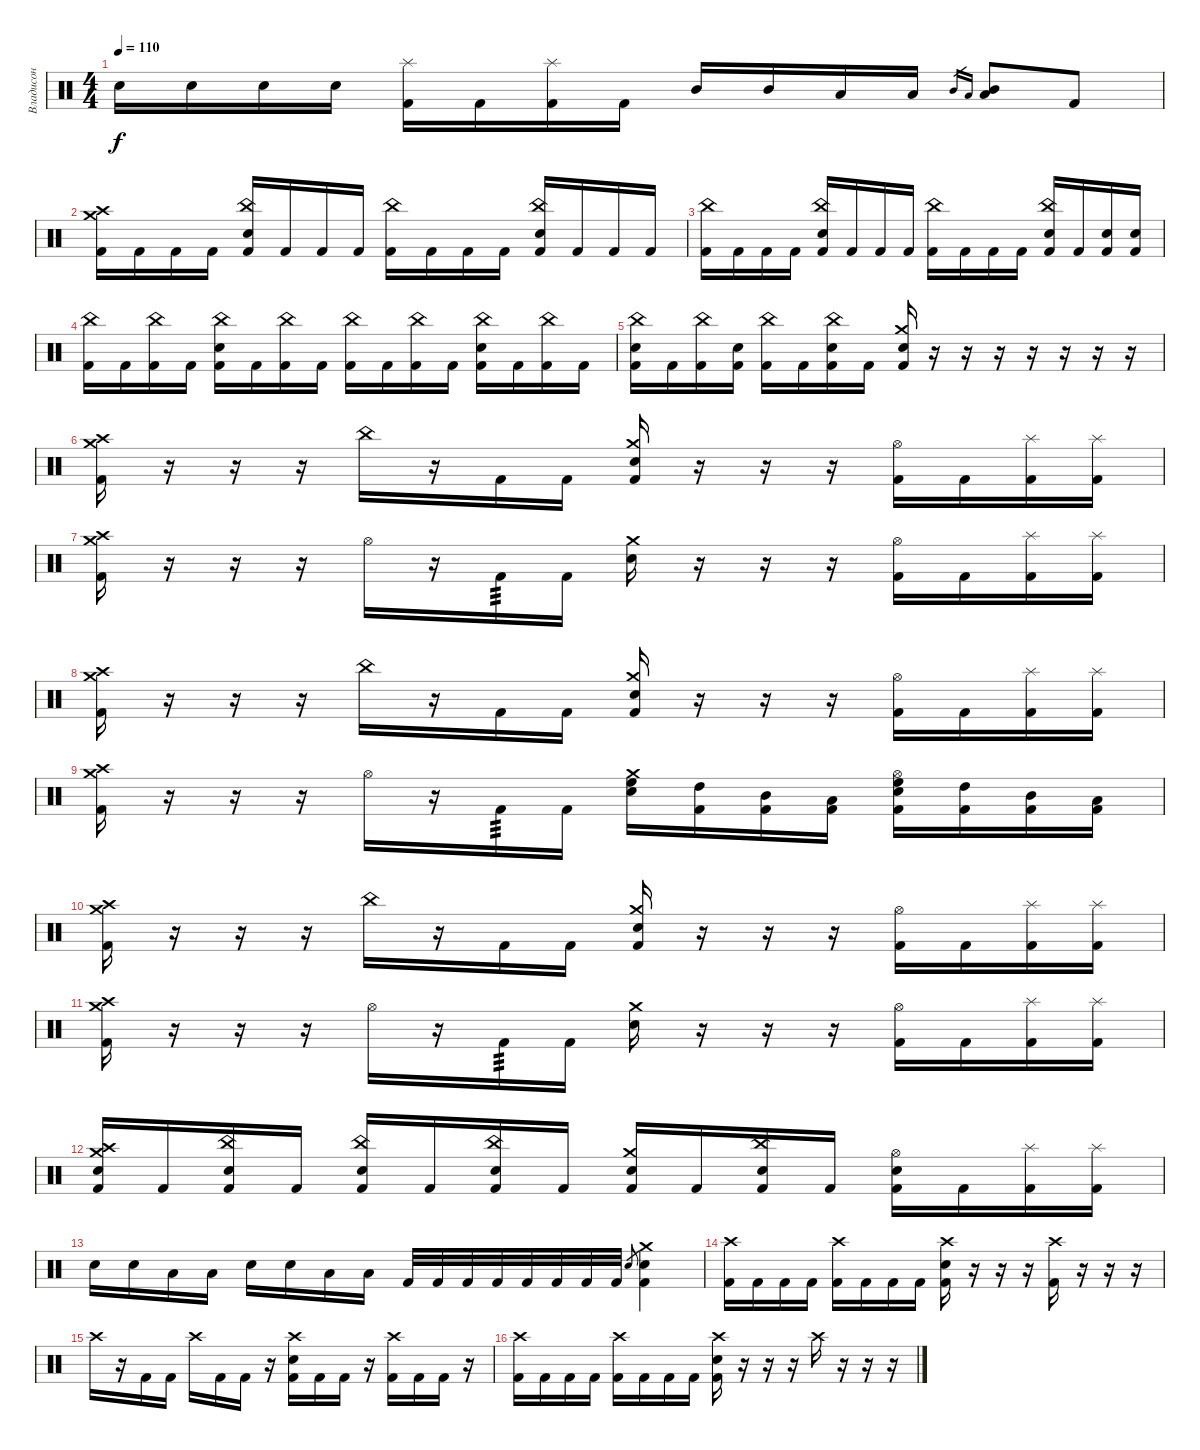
\track ("Владисон" "Владисон") {instrument percussion}
\staff
\articulation defaults
\ts (4 4)
\tempo 110
\clef neutral
\ks c "Electric Snare (hit)".16{dy f} "Electric Snare (hit)".16 "Electric Snare (hit)".16 "Electric Snare (hit)".16
("Splash (hit)" "Kick (hit) 2").16 "Kick (hit) 2".16 ("Splash (hit)" "Kick (hit) 2").16 "Kick (hit) 2".16 "Mid Tom (hit)".16 "Mid Tom (hit)".16 "Low Tom (hit)".16 "Low Tom (hit)".16 "Mid Tom (hit)".16{gr} "Low Tom (hit)".16{gr} ("Mid Tom (hit)" "Low Tom (hit)").8 "Kick (hit) 2".8 |
("Crash medium (hit)" "Crash high (hit)" "Kick (hit) 2").16 "Kick (hit) 2".16 "Kick (hit) 2".16 "Kick (hit) 2".16 ("China (hit)" "Snare (hit) 2" "Kick (hit) 2").16 "Kick (hit) 2".16 "Kick (hit) 2".16 "Kick (hit) 2".16 ("China (hit)" "Kick (hit) 2").16 "Kick (hit) 2".16 "Kick (hit) 2".16 "Kick (hit) 2".16 ("China (hit)" "Snare (hit) 2" "Kick (hit) 2").16 "Kick (hit) 2".16 "Kick (hit) 2".16 "Kick (hit) 2".16 |
("China (hit)" "Kick (hit) 2").16 "Kick (hit) 2".16 "Kick (hit) 2".16 "Kick (hit) 2".16 ("China (hit)" "Snare (hit) 2" "Kick (hit) 2").16 "Kick (hit) 2".16 "Kick (hit) 2".16 "Kick (hit) 2".16 ("China (hit)" "Kick (hit) 2").16 "Kick (hit) 2".16 "Kick (hit) 2".16 "Kick (hit) 2".16 ("China (hit)" "Snare (hit) 2" "Kick (hit) 2").16 "Kick (hit) 2".16 ("Snare (hit) 2" "Kick (hit) 2").16 ("Snare (hit) 2" "Kick (hit) 2").16 |
("China (hit)" "Kick (hit) 2").16 "Kick (hit) 2".16 ("China (hit)" "Kick (hit) 2").16 "Kick (hit) 2".16 ("China (hit)" "Snare (hit) 2" "Kick (hit) 2").16 "Kick (hit) 2".16 ("China (hit)" "Kick (hit) 2").16 "Kick (hit) 2".16 ("China (hit)" "Kick (hit) 2").16 "Kick (hit) 2".16 ("China (hit)" "Kick (hit) 2").16 "Kick (hit) 2".16 ("China (hit)" "Snare (hit) 2" "Kick (hit) 2").16 "Kick (hit) 2".16 ("China (hit)" "Kick (hit) 2").16 "Kick (hit) 2".16 |
("China (hit)" "Snare (hit) 2" "Kick (hit) 2").16 "Kick (hit) 2".16 ("China (hit)" "Kick (hit) 2").16 ("Snare (hit) 2" "Kick (hit) 2").16 ("China (hit)" "Kick (hit) 2").16 "Kick (hit) 2".16 ("China (hit)" "Snare (hit) 2" "Kick (hit) 2").16 "Kick (hit) 2".16 ("Crash medium (hit)" "Kick (hit) 2" "Snare (hit) 2").16 r.16 r.16 r.16 r.16 r.16 r.16 r.16 |
("Crash high (hit)" "Crash medium (hit)" "Kick (hit) 2").16 r.16 r.16 r.16 "China (hit)".16 r.16 "Kick (hit) 2".16 "Kick (hit) 2".16 ("Crash medium (hit)" "Snare (hit) 2" "Kick (hit) 2").16 r.16 r.16 r.16 ("Hi-Hat (open)" "Kick (hit) 2").16 "Kick (hit) 2".16 ("Splash (hit)" "Kick (hit) 2").16 ("Splash (hit)" "Kick (hit) 2").16 |
("Crash high (hit)" "Crash medium (hit)" "Kick (hit) 2").16 r.16 r.16 r.16 "Hi-Hat (open)".16 r.16 "Kick (hit) 2".16{tp 3} "Kick (hit) 2".16 ("Crash medium (hit)" "Snare (hit) 2").16 r.16 r.16 r.16 ("Hi-Hat (open)" "Kick (hit) 2").16 "Kick (hit) 2".16 ("Splash (hit)" "Kick (hit) 2").16 ("Splash (hit)" "Kick (hit) 2").16 |
("Crash high (hit)" "Crash medium (hit)" "Kick (hit) 2").16 r.16 r.16 r.16 "China (hit)".16 r.16 "Kick (hit) 2".16 "Kick (hit) 2".16 ("Crash medium (hit)" "Snare (hit) 2" "Kick (hit) 2").16 r.16 r.16 r.16 ("Hi-Hat (open)" "Kick (hit) 2").16 "Kick (hit) 2".16 ("Splash (hit)" "Kick (hit) 2").16 ("Splash (hit)" "Kick (hit) 2").16 |
("Crash high (hit)" "Crash medium (hit)" "Kick (hit) 2").16 r.16 r.16 r.16 "Hi-Hat (open)".16 r.16 "Kick (hit) 2".16{tp 3} "Kick (hit) 2".16 ("Crash medium (hit)" "Snare (hit) 2" "High Floor Tom (hit)").16 ("Kick (hit) 2" "High Tom (hit)").16 ("Kick (hit) 2" "Mid Tom (hit)").16 ("Kick (hit) 2" "Low Tom (hit)").16 ("Hi-Hat (open)" "High Floor Tom (hit)" "Snare (hit) 2" "Kick (hit) 2").16 ("High Tom (hit)" "Kick (hit) 2").16 ("Mid Tom (hit)" "Kick (hit) 2").16 ("Low Tom (hit)" "Kick (hit) 2").16 |
("Crash high (hit)" "Crash medium (hit)" "Kick (hit) 2").16 r.16 r.16 r.16 "China (hit)".16 r.16 "Kick (hit) 2".16 "Kick (hit) 2".16 ("Crash medium (hit)" "Snare (hit) 2" "Kick (hit) 2").16 r.16 r.16 r.16 ("Hi-Hat (open)" "Kick (hit) 2").16 "Kick (hit) 2".16 ("Splash (hit)" "Kick (hit) 2").16 ("Splash (hit)" "Kick (hit) 2").16 |
("Crash high (hit)" "Crash medium (hit)" "Kick (hit) 2").16 r.16 r.16 r.16 "Hi-Hat (open)".16 r.16 "Kick (hit) 2".16{tp 3} "Kick (hit) 2".16 ("Crash medium (hit)" "Snare (hit) 2").16 r.16 r.16 r.16 ("Hi-Hat (open)" "Kick (hit) 2").16 "Kick (hit) 2".16 ("Splash (hit)" "Kick (hit) 2").16 ("Splash (hit)" "Kick (hit) 2").16 |
("Crash high (hit)" "Crash medium (hit)" "Snare (hit) 2" "Kick (hit) 2").16 "Kick (hit) 2".16 ("China (hit)" "Snare (hit) 2" "Kick (hit) 2").16 "Kick (hit) 2".16 ("China (hit)" "Snare (hit) 2" "Kick (hit) 2").16 "Kick (hit) 2".16 ("China (hit)" "Snare (hit) 2" "Kick (hit) 2").16 "Kick (hit) 2".16 ("Crash medium (hit)" "Snare (hit) 2" "Kick (hit) 2").16 "Kick (hit) 2".16 ("China (hit)" "Snare (hit) 2" "Kick (hit) 2").16 "Kick (hit) 2".16 ("Hi-Hat (open)" "Snare (hit) 2" "Kick (hit) 2").16 "Kick (hit) 2".16 ("Splash (hit)" "Kick (hit) 2").16 ("Splash (hit)" "Kick (hit) 2").16 |
"Snare (hit) 2".16 "Snare (hit) 2".16 "Low Tom (hit)".16 "Low Tom (hit)".16 "Snare (hit) 2".16 "Snare (hit) 2".16 "Low Tom (hit)".16 "Low Tom (hit)".16 "Kick (hit) 2".32 "Kick (hit) 2".32 "Kick (hit) 2".32 "Kick (hit) 2".32 "Kick (hit) 2".32 "Kick (hit) 2".32 "Kick (hit) 2".32 "Kick (hit) 2".32 "Electric Snare (hit)".8{gr} ("Crash medium (hit)" "Electric Snare (hit)" "Kick (hit) 2").4 |
("Crash high (hit)" "Kick (hit) 2").16 "Kick (hit) 2".16 "Kick (hit) 2".16 "Kick (hit) 2".16 ("Crash high (hit)" "Kick (hit) 2").16 "Kick (hit) 2".16 "Kick (hit) 2".16 "Kick (hit) 2".16 ("Crash high (hit)" "Electric Snare (hit)" "Kick (hit) 2").16 r.16 r.16 r.16 ("Crash high (hit)" "Kick (hit) 2").16 r.16 r.16 r.16 |
"Crash high (hit)".16 r.16 "Kick (hit) 2".16 "Kick (hit) 2".16 "Crash high (hit)".16 "Kick (hit) 2".16 "Kick (hit) 2".16 r.16 ("Crash high (hit)" "Electric Snare (hit)" "Kick (hit) 2").16 "Kick (hit) 2".16 "Kick (hit) 2".16 r.16 ("Crash high (hit)" "Kick (hit) 2").16 "Kick (hit) 2".16 "Kick (hit) 2".16 r.16 |
("Crash high (hit)" "Kick (hit) 2").16 "Kick (hit) 2".16 "Kick (hit) 2".16 "Kick (hit) 2".16 ("Crash high (hit)" "Kick (hit) 2").16 "Kick (hit) 2".16 "Kick (hit) 2".16 "Kick (hit) 2".16 ("Crash high (hit)" "Electric Snare (hit)" "Kick (hit) 2").16 r.16 r.16 r.16 "Crash high (hit)".16 r.16 r.16 r.16
